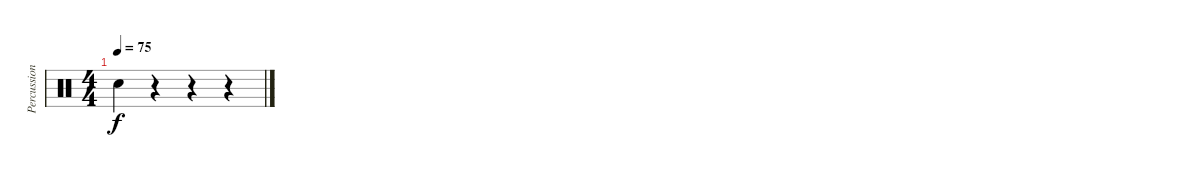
\track ("Percussion" "Percussion") {instrument percussion}
\staff {score}
\articulation defaults
\ts (4 4)
\tempo 75
\clef neutral
\ks c "Electric Snare (hit)".4{dy f}
r.4 r.4 r.4
